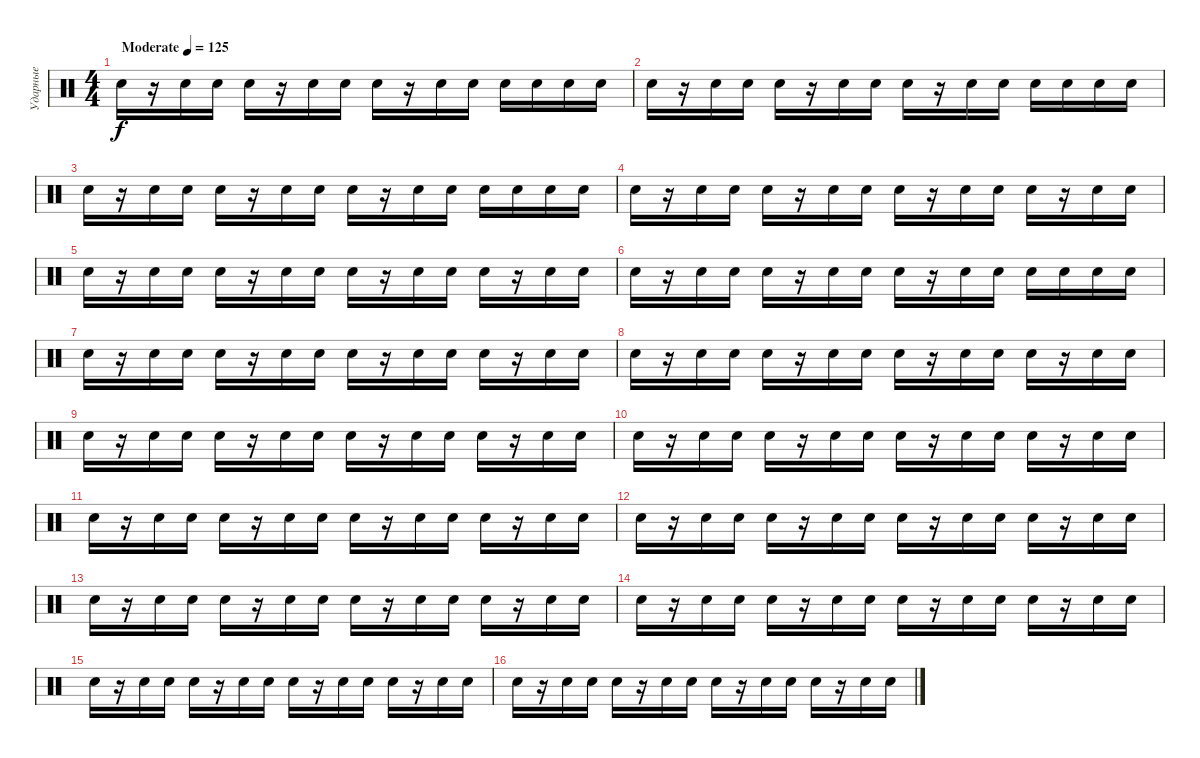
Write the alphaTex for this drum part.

\track ("Ударные" "Ударные") {instrument percussion}
\staff {score}
\articulation defaults
\ts (4 4)
\tempo (125 "Moderate")
\clef neutral
\ks c "Electric Snare (hit)".16{dy f}
r.16 "Electric Snare (hit)".16 "Electric Snare (hit)".16 "Electric Snare (hit)".16 r.16 "Electric Snare (hit)".16 "Electric Snare (hit)".16 "Electric Snare (hit)".16 r.16 "Electric Snare (hit)".16 "Electric Snare (hit)".16 "Electric Snare (hit)".16 "Electric Snare (hit)".16 "Electric Snare (hit)".16 "Electric Snare (hit)".16 |
"Electric Snare (hit)".16 r.16 "Electric Snare (hit)".16 "Electric Snare (hit)".16 "Electric Snare (hit)".16 r.16 "Electric Snare (hit)".16 "Electric Snare (hit)".16 "Electric Snare (hit)".16 r.16 "Electric Snare (hit)".16 "Electric Snare (hit)".16 "Electric Snare (hit)".16 "Electric Snare (hit)".16 "Electric Snare (hit)".16 "Electric Snare (hit)".16 |
"Electric Snare (hit)".16 r.16 "Electric Snare (hit)".16 "Electric Snare (hit)".16 "Electric Snare (hit)".16 r.16 "Electric Snare (hit)".16 "Electric Snare (hit)".16 "Electric Snare (hit)".16 r.16 "Electric Snare (hit)".16 "Electric Snare (hit)".16 "Electric Snare (hit)".16 "Electric Snare (hit)".16 "Electric Snare (hit)".16 "Electric Snare (hit)".16 |
"Electric Snare (hit)".16 r.16 "Electric Snare (hit)".16 "Electric Snare (hit)".16 "Electric Snare (hit)".16 r.16 "Electric Snare (hit)".16 "Electric Snare (hit)".16 "Electric Snare (hit)".16 r.16 "Electric Snare (hit)".16 "Electric Snare (hit)".16 "Electric Snare (hit)".16 r.16 "Electric Snare (hit)".16 "Electric Snare (hit)".16 |
"Electric Snare (hit)".16 r.16 "Electric Snare (hit)".16 "Electric Snare (hit)".16 "Electric Snare (hit)".16 r.16 "Electric Snare (hit)".16 "Electric Snare (hit)".16 "Electric Snare (hit)".16 r.16 "Electric Snare (hit)".16 "Electric Snare (hit)".16 "Electric Snare (hit)".16 r.16 "Electric Snare (hit)".16 "Electric Snare (hit)".16 |
"Electric Snare (hit)".16 r.16 "Electric Snare (hit)".16 "Electric Snare (hit)".16 "Electric Snare (hit)".16 r.16 "Electric Snare (hit)".16 "Electric Snare (hit)".16 "Electric Snare (hit)".16 r.16 "Electric Snare (hit)".16 "Electric Snare (hit)".16 "Electric Snare (hit)".16 "Electric Snare (hit)".16 "Electric Snare (hit)".16 "Electric Snare (hit)".16 |
"Electric Snare (hit)".16 r.16 "Electric Snare (hit)".16 "Electric Snare (hit)".16 "Electric Snare (hit)".16 r.16 "Electric Snare (hit)".16 "Electric Snare (hit)".16 "Electric Snare (hit)".16 r.16 "Electric Snare (hit)".16 "Electric Snare (hit)".16 "Electric Snare (hit)".16 r.16 "Electric Snare (hit)".16 "Electric Snare (hit)".16 |
"Electric Snare (hit)".16 r.16 "Electric Snare (hit)".16 "Electric Snare (hit)".16 "Electric Snare (hit)".16 r.16 "Electric Snare (hit)".16 "Electric Snare (hit)".16 "Electric Snare (hit)".16 r.16 "Electric Snare (hit)".16 "Electric Snare (hit)".16 "Electric Snare (hit)".16 r.16 "Electric Snare (hit)".16 "Electric Snare (hit)".16 |
"Electric Snare (hit)".16 r.16 "Electric Snare (hit)".16 "Electric Snare (hit)".16 "Electric Snare (hit)".16 r.16 "Electric Snare (hit)".16 "Electric Snare (hit)".16 "Electric Snare (hit)".16 r.16 "Electric Snare (hit)".16 "Electric Snare (hit)".16 "Electric Snare (hit)".16 r.16 "Electric Snare (hit)".16 "Electric Snare (hit)".16 |
"Electric Snare (hit)".16 r.16 "Electric Snare (hit)".16 "Electric Snare (hit)".16 "Electric Snare (hit)".16 r.16 "Electric Snare (hit)".16 "Electric Snare (hit)".16 "Electric Snare (hit)".16 r.16 "Electric Snare (hit)".16 "Electric Snare (hit)".16 "Electric Snare (hit)".16 r.16 "Electric Snare (hit)".16 "Electric Snare (hit)".16 |
"Electric Snare (hit)".16 r.16 "Electric Snare (hit)".16 "Electric Snare (hit)".16 "Electric Snare (hit)".16 r.16 "Electric Snare (hit)".16 "Electric Snare (hit)".16 "Electric Snare (hit)".16 r.16 "Electric Snare (hit)".16 "Electric Snare (hit)".16 "Electric Snare (hit)".16 r.16 "Electric Snare (hit)".16 "Electric Snare (hit)".16 |
"Electric Snare (hit)".16 r.16 "Electric Snare (hit)".16 "Electric Snare (hit)".16 "Electric Snare (hit)".16 r.16 "Electric Snare (hit)".16 "Electric Snare (hit)".16 "Electric Snare (hit)".16 r.16 "Electric Snare (hit)".16 "Electric Snare (hit)".16 "Electric Snare (hit)".16 r.16 "Electric Snare (hit)".16 "Electric Snare (hit)".16 |
"Electric Snare (hit)".16 r.16 "Electric Snare (hit)".16 "Electric Snare (hit)".16 "Electric Snare (hit)".16 r.16 "Electric Snare (hit)".16 "Electric Snare (hit)".16 "Electric Snare (hit)".16 r.16 "Electric Snare (hit)".16 "Electric Snare (hit)".16 "Electric Snare (hit)".16 r.16 "Electric Snare (hit)".16 "Electric Snare (hit)".16 |
"Electric Snare (hit)".16 r.16 "Electric Snare (hit)".16 "Electric Snare (hit)".16 "Electric Snare (hit)".16 r.16 "Electric Snare (hit)".16 "Electric Snare (hit)".16 "Electric Snare (hit)".16 r.16 "Electric Snare (hit)".16 "Electric Snare (hit)".16 "Electric Snare (hit)".16 r.16 "Electric Snare (hit)".16 "Electric Snare (hit)".16 |
"Electric Snare (hit)".16 r.16 "Electric Snare (hit)".16 "Electric Snare (hit)".16 "Electric Snare (hit)".16 r.16 "Electric Snare (hit)".16 "Electric Snare (hit)".16 "Electric Snare (hit)".16 r.16 "Electric Snare (hit)".16 "Electric Snare (hit)".16 "Electric Snare (hit)".16 r.16 "Electric Snare (hit)".16 "Electric Snare (hit)".16 |
"Electric Snare (hit)".16 r.16 "Electric Snare (hit)".16 "Electric Snare (hit)".16 "Electric Snare (hit)".16 r.16 "Electric Snare (hit)".16 "Electric Snare (hit)".16 "Electric Snare (hit)".16 r.16 "Electric Snare (hit)".16 "Electric Snare (hit)".16 "Electric Snare (hit)".16 r.16 "Electric Snare (hit)".16 "Electric Snare (hit)".16
